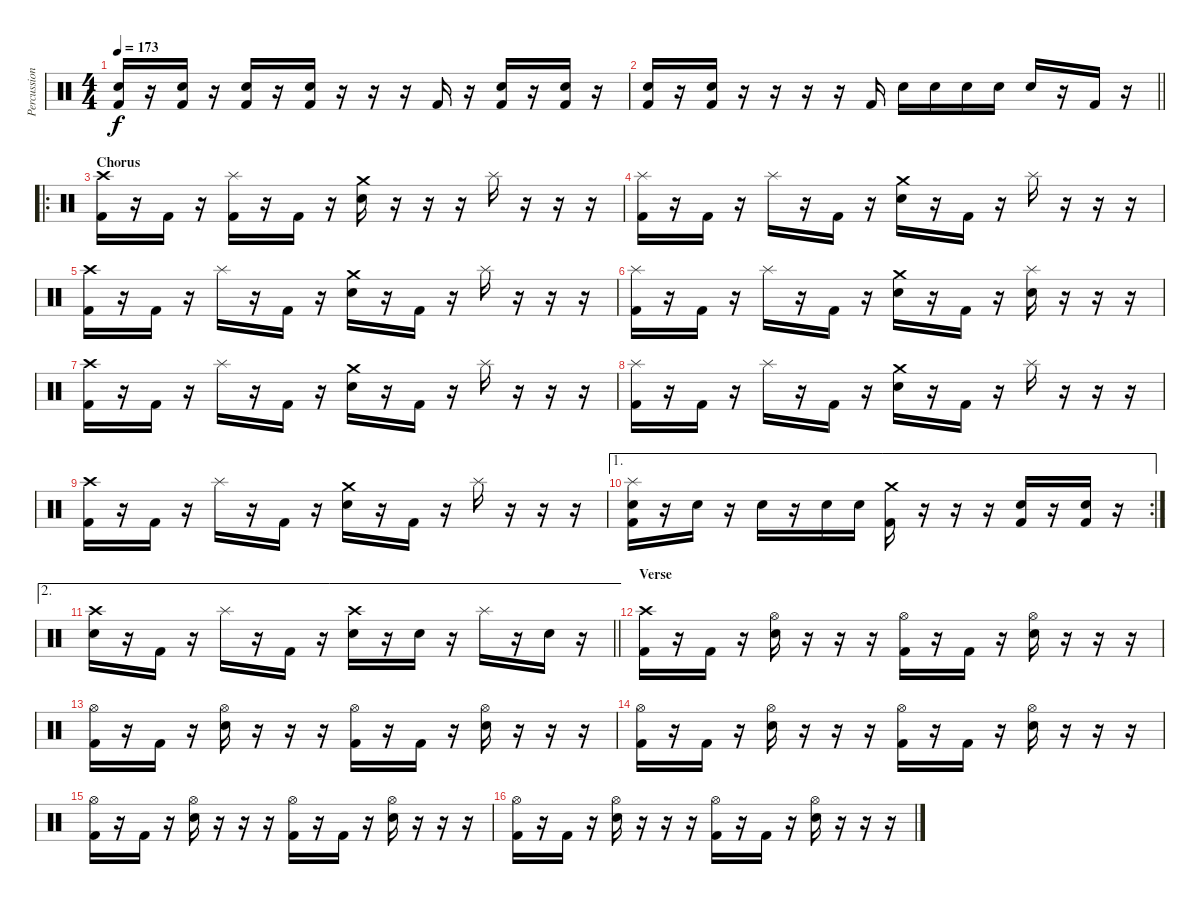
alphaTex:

\track ("Percussion" "Percussion") {instrument percussion}
\staff {score}
\articulation defaults
\ts (4 4)
\tempo 173
\clef neutral
\ks c
("Electric Snare (hit)" "Kick (hit) 2").16{dy f} r.16 ("Electric Snare (hit)" "Kick (hit) 2").16 r.16 ("Electric Snare (hit)" "Kick (hit) 2").16 r.16 ("Electric Snare (hit)" "Kick (hit) 2").16 r.16 r.16 r.16 "Kick (hit) 2".16 r.16 ("Electric Snare (hit)" "Kick (hit) 2").16 r.16 ("Electric Snare (hit)" "Kick (hit) 2").16 r.16 |
\barLineRight lightlight
("Electric Snare (hit)" "Kick (hit) 2").16 r.16 ("Electric Snare (hit)" "Kick (hit) 2").16 r.16 r.16 r.16 r.16 "Kick (hit) 2".16 "Electric Snare (hit)".16 "Electric Snare (hit)".16 "Electric Snare (hit)".16 "Electric Snare (hit)".16 "Electric Snare (hit)".16 r.16 "Kick (hit) 2".16 r.16 |
\ro
\section ("" "Chorus")
("Crash high (hit)" "Kick (hit) 2").16 r.16 "Kick (hit) 2".16 r.16 ("Splash (hit)" "Kick (hit) 2").16 r.16 "Kick (hit) 2".16 r.16 ("Crash medium (hit)" "Electric Snare (hit)").16 r.16 r.16 r.16 "Splash (hit)".16 r.16 r.16 r.16 |
("Splash (hit)" "Kick (hit) 2").16 r.16 "Kick (hit) 2".16 r.16 "Splash (hit)".16 r.16 "Kick (hit) 2".16 r.16 ("Crash medium (hit)" "Electric Snare (hit)").16 r.16 "Kick (hit) 2".16 r.16 "Splash (hit)".16 r.16 r.16 r.16 |
("Crash high (hit)" "Kick (hit) 2").16 r.16 "Kick (hit) 2".16 r.16 "Splash (hit)".16 r.16 "Kick (hit) 2".16 r.16 ("Crash medium (hit)" "Electric Snare (hit)").16 r.16 "Kick (hit) 2".16 r.16 "Splash (hit)".16 r.16 r.16 r.16 |
("Splash (hit)" "Kick (hit) 2").16 r.16 "Kick (hit) 2".16 r.16 "Splash (hit)".16 r.16 "Kick (hit) 2".16 r.16 ("Crash medium (hit)" "Electric Snare (hit)").16 r.16 "Kick (hit) 2".16 r.16 ("Splash (hit)" "Electric Snare (hit)").16 r.16 r.16 r.16 |
("Crash high (hit)" "Kick (hit) 2").16 r.16 "Kick (hit) 2".16 r.16 "Splash (hit)".16 r.16 "Kick (hit) 2".16 r.16 ("Crash medium (hit)" "Electric Snare (hit)").16 r.16 "Kick (hit) 2".16 r.16 "Splash (hit)".16 r.16 r.16 r.16 |
("Splash (hit)" "Kick (hit) 2").16 r.16 "Kick (hit) 2".16 r.16 "Splash (hit)".16 r.16 "Kick (hit) 2".16 r.16 ("Crash medium (hit)" "Electric Snare (hit)").16 r.16 "Kick (hit) 2".16 r.16 "Splash (hit)".16 r.16 r.16 r.16 |
("Crash high (hit)" "Kick (hit) 2").16 r.16 "Kick (hit) 2".16 r.16 "Splash (hit)".16 r.16 "Kick (hit) 2".16 r.16 ("Crash medium (hit)" "Electric Snare (hit)").16 r.16 "Kick (hit) 2".16 r.16 "Splash (hit)".16 r.16 r.16 r.16 |
\ae 1
\rc 2
("Splash (hit)" "Electric Snare (hit)" "Kick (hit) 2").16 r.16 "Electric Snare (hit)".16 r.16 "Electric Snare (hit)".16 r.16 "Electric Snare (hit)".16 "Electric Snare (hit)".16 ("Crash medium (hit)" "Kick (hit) 2").16 r.16 r.16 r.16 ("Electric Snare (hit)" "Kick (hit) 2").16 r.16 ("Electric Snare (hit)" "Kick (hit) 2").16 r.16 |
\ae 2
\barLineRight lightlight
("Crash high (hit)" "Electric Snare (hit)").16 r.16 "Kick (hit) 2".16 r.16 "Splash (hit)".16 r.16 "Kick (hit) 2".16 r.16 ("Crash high (hit)" "Electric Snare (hit)").16 r.16 "Electric Snare (hit)".16 r.16 "Splash (hit)".16 r.16 "Electric Snare (hit)".16 r.16 |
\section ("" "Verse")
("Crash high (hit)" "Kick (hit) 2").16 r.16 "Kick (hit) 2".16 r.16 ("Hi-Hat (open)" "Electric Snare (hit)").16 r.16 r.16 r.16 ("Hi-Hat (open)" "Kick (hit) 2").16 r.16 "Kick (hit) 2".16 r.16 ("Hi-Hat (open)" "Electric Snare (hit)").16 r.16 r.16 r.16 |
("Hi-Hat (open)" "Kick (hit) 2").16 r.16 "Kick (hit) 2".16 r.16 ("Hi-Hat (open)" "Electric Snare (hit)").16 r.16 r.16 r.16 ("Hi-Hat (open)" "Kick (hit) 2").16 r.16 "Kick (hit) 2".16 r.16 ("Hi-Hat (open)" "Electric Snare (hit)").16 r.16 r.16 r.16 |
("Hi-Hat (open)" "Kick (hit) 2").16 r.16 "Kick (hit) 2".16 r.16 ("Hi-Hat (open)" "Electric Snare (hit)").16 r.16 r.16 r.16 ("Hi-Hat (open)" "Kick (hit) 2").16 r.16 "Kick (hit) 2".16 r.16 ("Hi-Hat (open)" "Electric Snare (hit)").16 r.16 r.16 r.16 |
("Hi-Hat (open)" "Kick (hit) 2").16 r.16 "Kick (hit) 2".16 r.16 ("Hi-Hat (open)" "Electric Snare (hit)").16 r.16 r.16 r.16 ("Hi-Hat (open)" "Kick (hit) 2").16 r.16 "Kick (hit) 2".16 r.16 ("Hi-Hat (open)" "Electric Snare (hit)").16 r.16 r.16 r.16 |
("Hi-Hat (open)" "Kick (hit) 2").16 r.16 "Kick (hit) 2".16 r.16 ("Hi-Hat (open)" "Electric Snare (hit)").16 r.16 r.16 r.16 ("Hi-Hat (open)" "Kick (hit) 2").16 r.16 "Kick (hit) 2".16 r.16 ("Hi-Hat (open)" "Electric Snare (hit)").16 r.16 r.16 r.16
